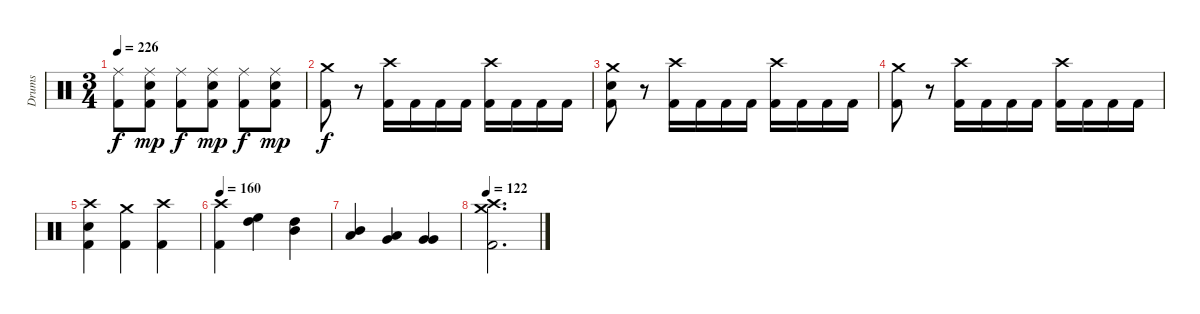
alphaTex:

\track ("Drums" "Drums") {instrument percussion}
\staff {score}
\articulation defaults
\ts (3 4)
\tempo 226
\clef neutral
\ks c
("Ride (middle)" "Kick (hit) 2").8{dy f} ("Ride (middle)" "Electric Snare (hit)" "Kick (hit) 2").8{dy mp} ("Ride (middle)" "Kick (hit) 2").8{dy f} ("Ride (middle)" "Electric Snare (hit)" "Kick (hit) 2").8{dy mp} ("Ride (middle)" "Kick (hit) 2").8{dy f} ("Ride (middle)" "Electric Snare (hit)" "Kick (hit) 2").8{dy mp} |
("Crash medium (hit)" "Kick (hit) 2").8{dy f} r.8 ("Crash high (hit)" "Kick (hit) 2").16 "Kick (hit) 2".16 "Kick (hit) 2".16 "Kick (hit) 2".16 ("Crash high (hit)" "Kick (hit) 2").16 "Kick (hit) 2".16 "Kick (hit) 2".16 "Kick (hit) 2".16 |
("Crash medium (hit)" "Electric Snare (hit)" "Kick (hit) 2").8 r.8 ("Crash high (hit)" "Kick (hit) 2").16 "Kick (hit) 2".16 "Kick (hit) 2".16 "Kick (hit) 2".16 ("Crash high (hit)" "Kick (hit) 2").16 "Kick (hit) 2".16 "Kick (hit) 2".16 "Kick (hit) 2".16 |
("Crash medium (hit)" "Kick (hit) 2").8 r.8 ("Crash high (hit)" "Kick (hit) 2").16 "Kick (hit) 2".16 "Kick (hit) 2".16 "Kick (hit) 2".16 ("Crash high (hit)" "Kick (hit) 2").16 "Kick (hit) 2".16 "Kick (hit) 2".16 "Kick (hit) 2".16 |
("Crash high (hit)" "Electric Snare (hit)" "Kick (hit) 2").4 ("Crash medium (hit)" "Kick (hit) 2").4 ("Crash high (hit)" "Kick (hit) 2").4 |
\tempo 160
("Crash high (hit)" "Kick (hit) 2").4 ("High Tom (hit)" "High Floor Tom (hit)").4 ("Mid Tom (hit)" "High Tom (hit)").4 |
("Low Tom (hit)" "Mid Tom (hit)").4 ("Very Low Tom (hit)" "Low Tom (hit)").4 ("Very Low Tom (hit)" "Very Low Tom (hit)").4 |
\tempo 122
("Crash high (hit)" "Crash medium (hit)" "Kick (hit) 2").2{d}
